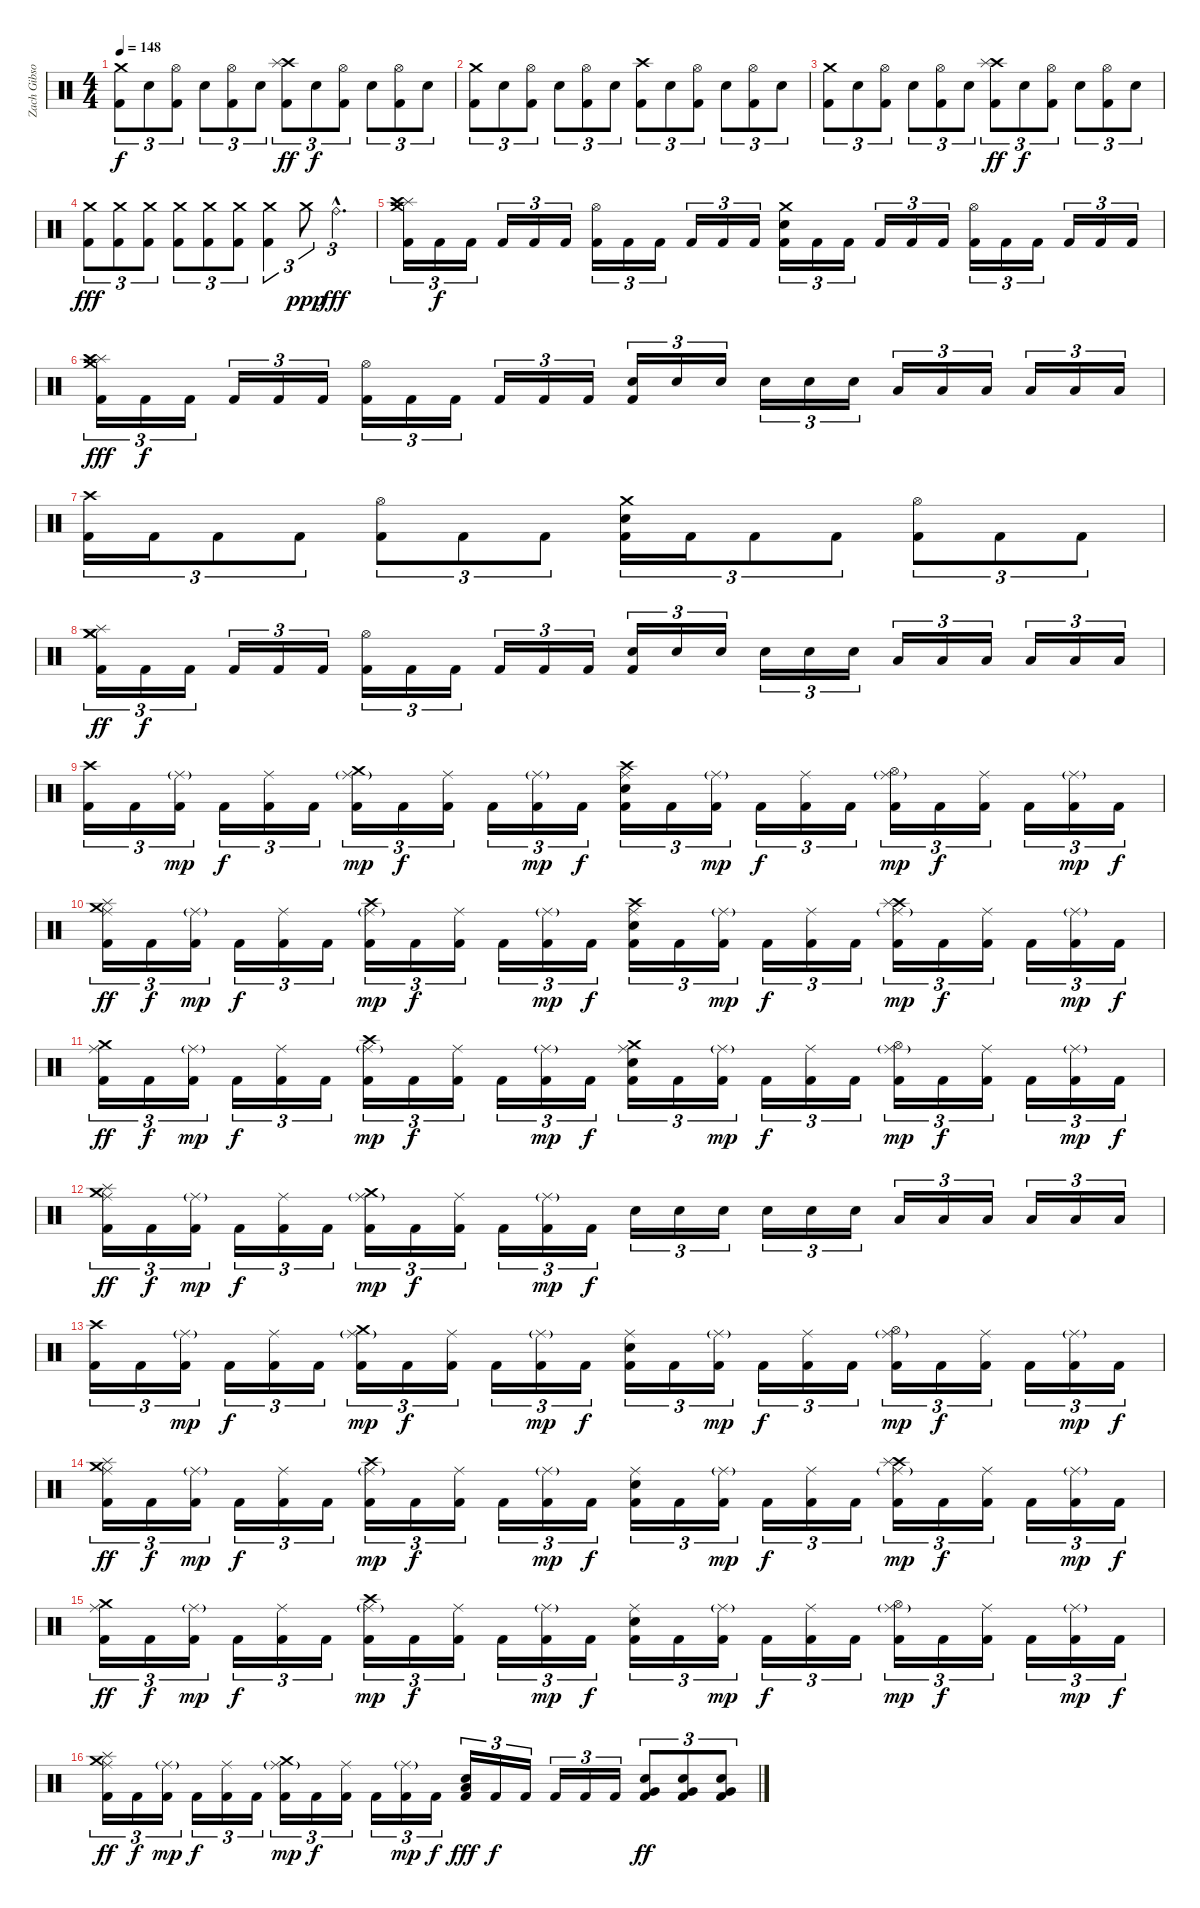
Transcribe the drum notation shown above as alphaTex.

\track ("Zach Gibson (Ex-Drums)" "Zach Gibso") {instrument percussion}
\staff {score}
\articulation defaults
\ts (4 4)
\tempo 148
\clef neutral
\ks c
("Crash medium (hit)" "Kick (hit) 2").8{tu (3 2) dy f} "Snare (hit) 2".8{tu (3 2)} ("Hi-Hat (open)" "Kick (hit) 2").8{tu (3 2)} "Snare (hit) 2".8{tu (3 2)} ("Hi-Hat (open)" "Kick (hit) 2").8{tu (3 2)} "Snare (hit) 2".8{tu (3 2)} ("Crash high (hit)" "Splash (hit)" "Kick (hit) 2").8{tu (3 2) dy ff} "Snare (hit) 2".8{tu (3 2) dy f} ("Hi-Hat (open)" "Kick (hit) 2").8{tu (3 2)} "Snare (hit) 2".8{tu (3 2)} ("Hi-Hat (open)" "Kick (hit) 2").8{tu (3 2)} "Snare (hit) 2".8{tu (3 2)} |
("Crash medium (hit)" "Kick (hit) 2").8{tu (3 2)} "Snare (hit) 2".8{tu (3 2)} ("Hi-Hat (open)" "Kick (hit) 2").8{tu (3 2)} "Snare (hit) 2".8{tu (3 2)} ("Hi-Hat (open)" "Kick (hit) 2").8{tu (3 2)} "Snare (hit) 2".8{tu (3 2)} ("Crash high (hit)" "Kick (hit) 2").8{tu (3 2)} "Snare (hit) 2".8{tu (3 2)} ("Hi-Hat (open)" "Kick (hit) 2").8{tu (3 2)} "Snare (hit) 2".8{tu (3 2)} ("Hi-Hat (open)" "Kick (hit) 2").8{tu (3 2)} "Snare (hit) 2".8{tu (3 2)} |
("Crash medium (hit)" "Kick (hit) 2").8{tu (3 2)} "Snare (hit) 2".8{tu (3 2)} ("Hi-Hat (open)" "Kick (hit) 2").8{tu (3 2)} "Snare (hit) 2".8{tu (3 2)} ("Hi-Hat (open)" "Kick (hit) 2").8{tu (3 2)} "Snare (hit) 2".8{tu (3 2)} ("Crash high (hit)" "Splash (hit)" "Kick (hit) 2").8{tu (3 2) dy ff} "Snare (hit) 2".8{tu (3 2) dy f} ("Hi-Hat (open)" "Kick (hit) 2").8{tu (3 2)} "Snare (hit) 2".8{tu (3 2)} ("Hi-Hat (open)" "Kick (hit) 2").8{tu (3 2)} "Snare (hit) 2".8{tu (3 2)} |
("Crash medium (hit)" "Kick (hit) 2").8{tu (3 2) dy fff} ("Crash medium (hit)" "Kick (hit) 2").8{tu (3 2)} ("Crash medium (hit)" "Kick (hit) 2").8{tu (3 2)} ("Crash medium (hit)" "Kick (hit) 2").8{tu (3 2)} ("Crash medium (hit)" "Kick (hit) 2").8{tu (3 2)} ("Crash medium (hit)" "Kick (hit) 2").8{tu (3 2)} ("Crash medium (hit)" "Kick (hit) 2").4{tu (3 2)} "Crash medium (hit)".8{tu (3 2) dy ppp} "Ride (bell)"{hac}.4{d tu (3 2) dy fff} |
("Crash medium (hit)" "Splash (hit)" "Crash high (hit)" "Kick (hit) 2").16{tu (3 2)} "Kick (hit) 2".16{tu (3 2) dy f} "Kick (hit) 2".16{tu (3 2)} "Kick (hit) 2".16{tu (3 2)} "Kick (hit) 2".16{tu (3 2)} "Kick (hit) 2".16{tu (3 2)} ("Hi-Hat (open)" "Kick (hit) 2").16{tu (3 2)} "Kick (hit) 2".16{tu (3 2)} "Kick (hit) 2".16{tu (3 2)} "Kick (hit) 2".16{tu (3 2)} "Kick (hit) 2".16{tu (3 2)} "Kick (hit) 2".16{tu (3 2)} ("Crash medium (hit)" "Snare (hit) 2" "Kick (hit) 2").16{tu (3 2)} "Kick (hit) 2".16{tu (3 2)} "Kick (hit) 2".16{tu (3 2)} "Kick (hit) 2".16{tu (3 2)} "Kick (hit) 2".16{tu (3 2)} "Kick (hit) 2".16{tu (3 2)} ("Hi-Hat (open)" "Kick (hit) 2").16{tu (3 2)} "Kick (hit) 2".16{tu (3 2)} "Kick (hit) 2".16{tu (3 2)} "Kick (hit) 2".16{tu (3 2)} "Kick (hit) 2".16{tu (3 2)} "Kick (hit) 2".16{tu (3 2)} |
("Crash medium (hit)" "Splash (hit)" "Crash high (hit)" "Kick (hit) 2").16{tu (3 2) dy fff} "Kick (hit) 2".16{tu (3 2) dy f} "Kick (hit) 2".16{tu (3 2)} "Kick (hit) 2".16{tu (3 2)} "Kick (hit) 2".16{tu (3 2)} "Kick (hit) 2".16{tu (3 2)} ("Hi-Hat (open)" "Kick (hit) 2").16{tu (3 2)} "Kick (hit) 2".16{tu (3 2)} "Kick (hit) 2".16{tu (3 2)} "Kick (hit) 2".16{tu (3 2)} "Kick (hit) 2".16{tu (3 2)} "Kick (hit) 2".16{tu (3 2)} ("Snare (hit) 2" "Kick (hit) 2").16{tu (3 2)} "Snare (hit) 2".16{tu (3 2)} "Snare (hit) 2".16{tu (3 2)} "Snare (hit) 2".16{tu (3 2)} "Snare (hit) 2".16{tu (3 2)} "Snare (hit) 2".16{tu (3 2)} "Low Tom (hit)".16{tu (3 2)} "Low Tom (hit)".16{tu (3 2)} "Low Tom (hit)".16{tu (3 2)} "Low Tom (hit)".16{tu (3 2)} "Low Tom (hit)".16{tu (3 2)} "Low Tom (hit)".16{tu (3 2)} |
("Crash high (hit)" "Kick (hit) 2").16{tu (3 2)} "Kick (hit) 2".16{tu (3 2)} "Kick (hit) 2".8{tu (3 2)} "Kick (hit) 2".8{tu (3 2)} ("Hi-Hat (open)" "Kick (hit) 2").8{tu (3 2)} "Kick (hit) 2".8{tu (3 2)} "Kick (hit) 2".8{tu (3 2)} ("Crash medium (hit)" "Snare (hit) 2" "Kick (hit) 2").16{tu (3 2)} "Kick (hit) 2".16{tu (3 2)} "Kick (hit) 2".8{tu (3 2)} "Kick (hit) 2".8{tu (3 2)} ("Hi-Hat (open)" "Kick (hit) 2").8{tu (3 2)} "Kick (hit) 2".8{tu (3 2)} "Kick (hit) 2".8{tu (3 2)} |
("Crash medium (hit)" "Splash (hit)" "Crash medium (hit)" "Kick (hit) 2").16{tu (3 2) dy ff} "Kick (hit) 2".16{tu (3 2) dy f} "Kick (hit) 2".16{tu (3 2)} "Kick (hit) 2".16{tu (3 2)} "Kick (hit) 2".16{tu (3 2)} "Kick (hit) 2".16{tu (3 2)} ("Hi-Hat (open)" "Kick (hit) 2").16{tu (3 2)} "Kick (hit) 2".16{tu (3 2)} "Kick (hit) 2".16{tu (3 2)} "Kick (hit) 2".16{tu (3 2)} "Kick (hit) 2".16{tu (3 2)} "Kick (hit) 2".16{tu (3 2)} ("Snare (hit) 2" "Kick (hit) 2").16{tu (3 2)} "Snare (hit) 2".16{tu (3 2)} "Snare (hit) 2".16{tu (3 2)} "Snare (hit) 2".16{tu (3 2)} "Snare (hit) 2".16{tu (3 2)} "Snare (hit) 2".16{tu (3 2)} "Low Tom (hit)".16{tu (3 2)} "Low Tom (hit)".16{tu (3 2)} "Low Tom (hit)".16{tu (3 2)} "Low Tom (hit)".16{tu (3 2)} "Low Tom (hit)".16{tu (3 2)} "Low Tom (hit)".16{tu (3 2)} |
("Crash high (hit)" "Kick (hit) 2").16{tu (3 2)} "Kick (hit) 2".16{tu (3 2)} ("Ride (middle)"{g} "Kick (hit) 2").16{tu (3 2) dy mp} "Kick (hit) 2".16{tu (3 2) dy f} ("Ride (middle)" "Kick (hit) 2").16{tu (3 2)} "Kick (hit) 2".16{tu (3 2)} ("Crash medium (hit)" "Ride (middle)"{g} "Kick (hit) 2").16{tu (3 2) dy mp} "Kick (hit) 2".16{tu (3 2) dy f} ("Ride (middle)" "Kick (hit) 2").16{tu (3 2)} "Kick (hit) 2".16{tu (3 2)} ("Ride (middle)"{g} "Kick (hit) 2").16{tu (3 2) dy mp} "Kick (hit) 2".16{tu (3 2) dy f} ("Crash high (hit)" "Ride (middle)" "Snare (hit) 2" "Kick (hit) 2").16{tu (3 2)} "Kick (hit) 2".16{tu (3 2)} ("Ride (middle)"{g} "Kick (hit) 2").16{tu (3 2) dy mp} "Kick (hit) 2".16{tu (3 2) dy f} ("Ride (middle)" "Kick (hit) 2").16{tu (3 2)} "Kick (hit) 2".16{tu (3 2)} ("Hi-Hat (open)" "Ride (middle)"{g} "Kick (hit) 2").16{tu (3 2) dy mp} "Kick (hit) 2".16{tu (3 2) dy f} ("Ride (middle)" "Kick (hit) 2").16{tu (3 2)} "Kick (hit) 2".16{tu (3 2)} ("Ride (middle)"{g} "Kick (hit) 2").16{tu (3 2) dy mp} "Kick (hit) 2".16{tu (3 2) dy f} |
("Crash medium (hit)" "Splash (hit)" "Ride (middle)" "Kick (hit) 2").16{tu (3 2) dy ff} "Kick (hit) 2".16{tu (3 2) dy f} ("Ride (middle)"{g} "Kick (hit) 2").16{tu (3 2) dy mp} "Kick (hit) 2".16{tu (3 2) dy f} ("Ride (middle)" "Kick (hit) 2").16{tu (3 2)} "Kick (hit) 2".16{tu (3 2)} ("Crash high (hit)" "Ride (middle)"{g} "Kick (hit) 2").16{tu (3 2) dy mp} "Kick (hit) 2".16{tu (3 2) dy f} ("Ride (middle)" "Kick (hit) 2").16{tu (3 2)} "Kick (hit) 2".16{tu (3 2)} ("Ride (middle)"{g} "Kick (hit) 2").16{tu (3 2) dy mp} "Kick (hit) 2".16{tu (3 2) dy f} ("Crash high (hit)" "Ride (middle)" "Snare (hit) 2" "Kick (hit) 2").16{tu (3 2)} "Kick (hit) 2".16{tu (3 2)} ("Ride (middle)"{g} "Kick (hit) 2").16{tu (3 2) dy mp} "Kick (hit) 2".16{tu (3 2) dy f} ("Ride (middle)" "Kick (hit) 2").16{tu (3 2)} "Kick (hit) 2".16{tu (3 2)} ("Crash high (hit)" "Splash (hit)" "Ride (middle)"{g} "Kick (hit) 2").16{tu (3 2) dy mp} "Kick (hit) 2".16{tu (3 2) dy f} ("Ride (middle)" "Kick (hit) 2").16{tu (3 2)} "Kick (hit) 2".16{tu (3 2)} ("Ride (middle)"{g} "Kick (hit) 2").16{tu (3 2) dy mp} "Kick (hit) 2".16{tu (3 2) dy f} |
("Crash medium (hit)" "Ride (middle)" "Kick (hit) 2").16{tu (3 2) dy ff} "Kick (hit) 2".16{tu (3 2) dy f} ("Ride (middle)"{g} "Kick (hit) 2").16{tu (3 2) dy mp} "Kick (hit) 2".16{tu (3 2) dy f} ("Ride (middle)" "Kick (hit) 2").16{tu (3 2)} "Kick (hit) 2".16{tu (3 2)} ("Crash high (hit)" "Ride (middle)"{g} "Kick (hit) 2").16{tu (3 2) dy mp} "Kick (hit) 2".16{tu (3 2) dy f} ("Ride (middle)" "Kick (hit) 2").16{tu (3 2)} "Kick (hit) 2".16{tu (3 2)} ("Ride (middle)"{g} "Kick (hit) 2").16{tu (3 2) dy mp} "Kick (hit) 2".16{tu (3 2) dy f} ("Crash medium (hit)" "Ride (middle)" "Snare (hit) 2" "Kick (hit) 2").16{tu (3 2)} "Kick (hit) 2".16{tu (3 2)} ("Ride (middle)"{g} "Kick (hit) 2").16{tu (3 2) dy mp} "Kick (hit) 2".16{tu (3 2) dy f} ("Ride (middle)" "Kick (hit) 2").16{tu (3 2)} "Kick (hit) 2".16{tu (3 2)} ("Hi-Hat (open)" "Ride (middle)"{g} "Kick (hit) 2").16{tu (3 2) dy mp} "Kick (hit) 2".16{tu (3 2) dy f} ("Ride (middle)" "Kick (hit) 2").16{tu (3 2)} "Kick (hit) 2".16{tu (3 2)} ("Ride (middle)"{g} "Kick (hit) 2").16{tu (3 2) dy mp} "Kick (hit) 2".16{tu (3 2) dy f} |
("Crash medium (hit)" "Splash (hit)" "Ride (middle)" "Kick (hit) 2").16{tu (3 2) dy ff} "Kick (hit) 2".16{tu (3 2) dy f} ("Ride (middle)"{g} "Kick (hit) 2").16{tu (3 2) dy mp} "Kick (hit) 2".16{tu (3 2) dy f} ("Ride (middle)" "Kick (hit) 2").16{tu (3 2)} "Kick (hit) 2".16{tu (3 2)} ("Crash medium (hit)" "Ride (middle)"{g} "Kick (hit) 2").16{tu (3 2) dy mp} "Kick (hit) 2".16{tu (3 2) dy f} ("Ride (middle)" "Kick (hit) 2").16{tu (3 2)} "Kick (hit) 2".16{tu (3 2)} ("Ride (middle)"{g} "Kick (hit) 2").16{tu (3 2) dy mp} "Kick (hit) 2".16{tu (3 2) dy f} "Snare (hit) 2".16{tu (3 2)} "Snare (hit) 2".16{tu (3 2)} "Snare (hit) 2".16{tu (3 2)} "Snare (hit) 2".16{tu (3 2)} "Snare (hit) 2".16{tu (3 2)} "Snare (hit) 2".16{tu (3 2)} "Low Tom (hit)".16{tu (3 2)} "Low Tom (hit)".16{tu (3 2)} "Low Tom (hit)".16{tu (3 2)} "Low Tom (hit)".16{tu (3 2)} "Low Tom (hit)".16{tu (3 2)} "Low Tom (hit)".16{tu (3 2)} |
("Crash high (hit)" "Kick (hit) 2").16{tu (3 2)} "Kick (hit) 2".16{tu (3 2)} ("Ride (middle)"{g} "Kick (hit) 2").16{tu (3 2) dy mp} "Kick (hit) 2".16{tu (3 2) dy f} ("Ride (middle)" "Kick (hit) 2").16{tu (3 2)} "Kick (hit) 2".16{tu (3 2)} ("Crash medium (hit)" "Ride (middle)"{g} "Kick (hit) 2").16{tu (3 2) dy mp} "Kick (hit) 2".16{tu (3 2) dy f} ("Ride (middle)" "Kick (hit) 2").16{tu (3 2)} "Kick (hit) 2".16{tu (3 2)} ("Ride (middle)"{g} "Kick (hit) 2").16{tu (3 2) dy mp} "Kick (hit) 2".16{tu (3 2) dy f} ("Ride (middle)" "Snare (hit) 2" "Kick (hit) 2").16{tu (3 2)} "Kick (hit) 2".16{tu (3 2)} ("Ride (middle)"{g} "Kick (hit) 2").16{tu (3 2) dy mp} "Kick (hit) 2".16{tu (3 2) dy f} ("Ride (middle)" "Kick (hit) 2").16{tu (3 2)} "Kick (hit) 2".16{tu (3 2)} ("Hi-Hat (open)" "Ride (middle)"{g} "Kick (hit) 2").16{tu (3 2) dy mp} "Kick (hit) 2".16{tu (3 2) dy f} ("Ride (middle)" "Kick (hit) 2").16{tu (3 2)} "Kick (hit) 2".16{tu (3 2)} ("Ride (middle)"{g} "Kick (hit) 2").16{tu (3 2) dy mp} "Kick (hit) 2".16{tu (3 2) dy f} |
("Crash medium (hit)" "Splash (hit)" "Ride (middle)" "Kick (hit) 2").16{tu (3 2) dy ff} "Kick (hit) 2".16{tu (3 2) dy f} ("Ride (middle)"{g} "Kick (hit) 2").16{tu (3 2) dy mp} "Kick (hit) 2".16{tu (3 2) dy f} ("Ride (middle)" "Kick (hit) 2").16{tu (3 2)} "Kick (hit) 2".16{tu (3 2)} ("Crash high (hit)" "Ride (middle)"{g} "Kick (hit) 2").16{tu (3 2) dy mp} "Kick (hit) 2".16{tu (3 2) dy f} ("Ride (middle)" "Kick (hit) 2").16{tu (3 2)} "Kick (hit) 2".16{tu (3 2)} ("Ride (middle)"{g} "Kick (hit) 2").16{tu (3 2) dy mp} "Kick (hit) 2".16{tu (3 2) dy f} ("Ride (middle)" "Snare (hit) 2" "Kick (hit) 2").16{tu (3 2)} "Kick (hit) 2".16{tu (3 2)} ("Ride (middle)"{g} "Kick (hit) 2").16{tu (3 2) dy mp} "Kick (hit) 2".16{tu (3 2) dy f} ("Ride (middle)" "Kick (hit) 2").16{tu (3 2)} "Kick (hit) 2".16{tu (3 2)} ("Crash high (hit)" "Splash (hit)" "Ride (middle)"{g} "Kick (hit) 2").16{tu (3 2) dy mp} "Kick (hit) 2".16{tu (3 2) dy f} ("Ride (middle)" "Kick (hit) 2").16{tu (3 2)} "Kick (hit) 2".16{tu (3 2)} ("Ride (middle)"{g} "Kick (hit) 2").16{tu (3 2) dy mp} "Kick (hit) 2".16{tu (3 2) dy f} |
("Crash medium (hit)" "Ride (middle)" "Kick (hit) 2").16{tu (3 2) dy ff} "Kick (hit) 2".16{tu (3 2) dy f} ("Ride (middle)"{g} "Kick (hit) 2").16{tu (3 2) dy mp} "Kick (hit) 2".16{tu (3 2) dy f} ("Ride (middle)" "Kick (hit) 2").16{tu (3 2)} "Kick (hit) 2".16{tu (3 2)} ("Crash high (hit)" "Ride (middle)"{g} "Kick (hit) 2").16{tu (3 2) dy mp} "Kick (hit) 2".16{tu (3 2) dy f} ("Ride (middle)" "Kick (hit) 2").16{tu (3 2)} "Kick (hit) 2".16{tu (3 2)} ("Ride (middle)"{g} "Kick (hit) 2").16{tu (3 2) dy mp} "Kick (hit) 2".16{tu (3 2) dy f} ("Ride (middle)" "Snare (hit) 2" "Kick (hit) 2").16{tu (3 2)} "Kick (hit) 2".16{tu (3 2)} ("Ride (middle)"{g} "Kick (hit) 2").16{tu (3 2) dy mp} "Kick (hit) 2".16{tu (3 2) dy f} ("Ride (middle)" "Kick (hit) 2").16{tu (3 2)} "Kick (hit) 2".16{tu (3 2)} ("Hi-Hat (open)" "Ride (middle)"{g} "Kick (hit) 2").16{tu (3 2) dy mp} "Kick (hit) 2".16{tu (3 2) dy f} ("Ride (middle)" "Kick (hit) 2").16{tu (3 2)} "Kick (hit) 2".16{tu (3 2)} ("Ride (middle)"{g} "Kick (hit) 2").16{tu (3 2) dy mp} "Kick (hit) 2".16{tu (3 2) dy f} |
("Crash medium (hit)" "Splash (hit)" "Ride (middle)" "Kick (hit) 2").16{tu (3 2) dy ff} "Kick (hit) 2".16{tu (3 2) dy f} ("Ride (middle)"{g} "Kick (hit) 2").16{tu (3 2) dy mp} "Kick (hit) 2".16{tu (3 2) dy f} ("Ride (middle)" "Kick (hit) 2").16{tu (3 2)} "Kick (hit) 2".16{tu (3 2)} ("Crash medium (hit)" "Ride (middle)"{g} "Kick (hit) 2").16{tu (3 2) dy mp} "Kick (hit) 2".16{tu (3 2) dy f} ("Ride (middle)" "Kick (hit) 2").16{tu (3 2)} "Kick (hit) 2".16{tu (3 2)} ("Ride (middle)"{g} "Kick (hit) 2").16{tu (3 2) dy mp} "Kick (hit) 2".16{tu (3 2) dy f} ("Low Floor Tom (hit)" "Snare (hit) 2" "Kick (hit) 2").16{tu (3 2) dy fff} "Kick (hit) 2".16{tu (3 2) dy f} "Kick (hit) 2".16{tu (3 2)} "Kick (hit) 2".16{tu (3 2)} "Kick (hit) 2".16{tu (3 2)} "Kick (hit) 2".16{tu (3 2)} ("Very Low Tom (hit)" "Snare (hit) 2" "Kick (hit) 2").8{tu (3 2) dy ff} ("Very Low Tom (hit)" "Snare (hit) 2" "Kick (hit) 2").8{tu (3 2)} ("Very Low Tom (hit)" "Snare (hit) 2" "Kick (hit) 2").8{tu (3 2)}
